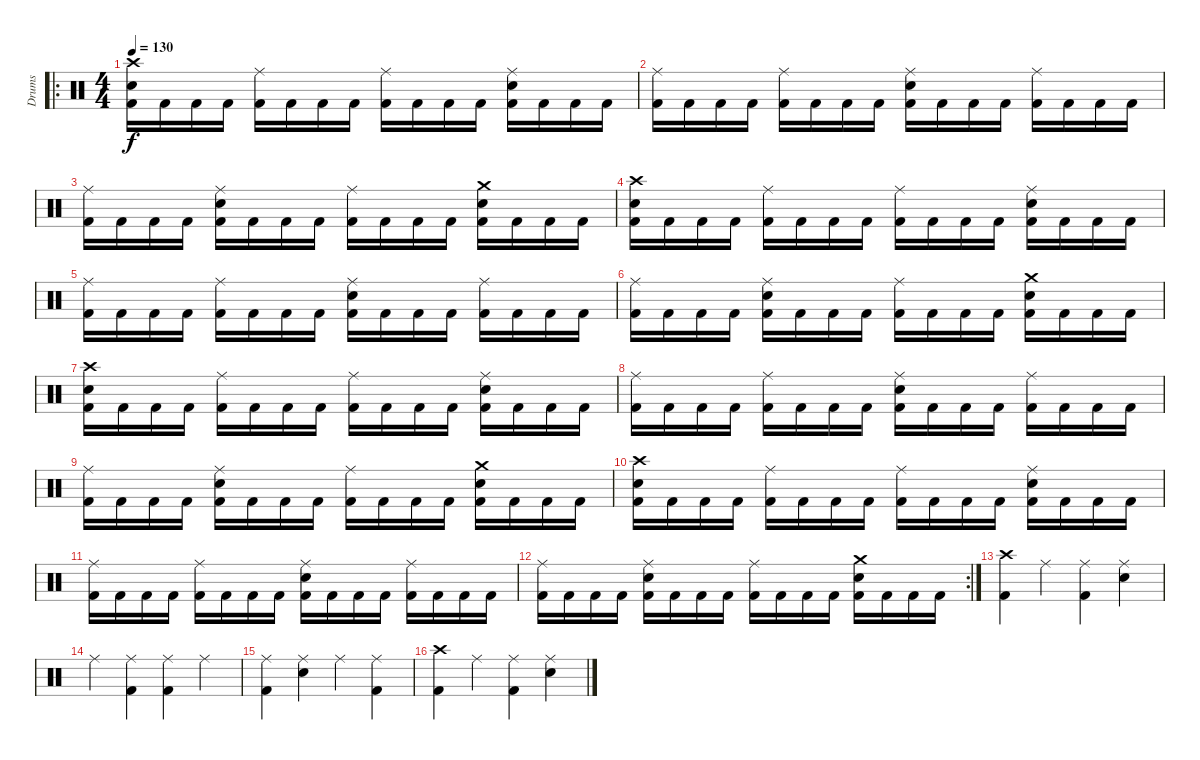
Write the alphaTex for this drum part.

\track ("Drums" "Drums") {instrument percussion}
\staff {score}
\articulation defaults
\ro
\ts (4 4)
\tempo 130
\clef neutral
\ks c
("Crash high (hit)" "Electric Snare (hit)" "Kick (hit) 2").16{dy f} "Kick (hit) 2".16 "Kick (hit) 2".16 "Kick (hit) 2".16 ("Ride (middle)" "Kick (hit) 2").16 "Kick (hit) 2".16 "Kick (hit) 2".16 "Kick (hit) 2".16 ("Ride (middle)" "Kick (hit) 2").16 "Kick (hit) 2".16 "Kick (hit) 2".16 "Kick (hit) 2".16 ("Ride (middle)" "Electric Snare (hit)" "Kick (hit) 2").16 "Kick (hit) 2".16 "Kick (hit) 2".16 "Kick (hit) 2".16 |
("Ride (middle)" "Kick (hit) 2").16 "Kick (hit) 2".16 "Kick (hit) 2".16 "Kick (hit) 2".16 ("Ride (middle)" "Kick (hit) 2").16 "Kick (hit) 2".16 "Kick (hit) 2".16 "Kick (hit) 2".16 ("Ride (middle)" "Electric Snare (hit)" "Kick (hit) 2").16 "Kick (hit) 2".16 "Kick (hit) 2".16 "Kick (hit) 2".16 ("Ride (middle)" "Kick (hit) 2").16 "Kick (hit) 2".16 "Kick (hit) 2".16 "Kick (hit) 2".16 |
("Ride (middle)" "Kick (hit) 2").16 "Kick (hit) 2".16 "Kick (hit) 2".16 "Kick (hit) 2".16 ("Ride (middle)" "Electric Snare (hit)" "Kick (hit) 2").16 "Kick (hit) 2".16 "Kick (hit) 2".16 "Kick (hit) 2".16 ("Ride (middle)" "Kick (hit) 2").16 "Kick (hit) 2".16 "Kick (hit) 2".16 "Kick (hit) 2".16 ("Crash medium (hit)" "Electric Snare (hit)" "Kick (hit) 2").16 "Kick (hit) 2".16 "Kick (hit) 2".16 "Kick (hit) 2".16 |
("Crash high (hit)" "Electric Snare (hit)" "Kick (hit) 2").16 "Kick (hit) 2".16 "Kick (hit) 2".16 "Kick (hit) 2".16 ("Ride (middle)" "Kick (hit) 2").16 "Kick (hit) 2".16 "Kick (hit) 2".16 "Kick (hit) 2".16 ("Ride (middle)" "Kick (hit) 2").16 "Kick (hit) 2".16 "Kick (hit) 2".16 "Kick (hit) 2".16 ("Ride (middle)" "Electric Snare (hit)" "Kick (hit) 2").16 "Kick (hit) 2".16 "Kick (hit) 2".16 "Kick (hit) 2".16 |
("Ride (middle)" "Kick (hit) 2").16 "Kick (hit) 2".16 "Kick (hit) 2".16 "Kick (hit) 2".16 ("Ride (middle)" "Kick (hit) 2").16 "Kick (hit) 2".16 "Kick (hit) 2".16 "Kick (hit) 2".16 ("Ride (middle)" "Electric Snare (hit)" "Kick (hit) 2").16 "Kick (hit) 2".16 "Kick (hit) 2".16 "Kick (hit) 2".16 ("Ride (middle)" "Kick (hit) 2").16 "Kick (hit) 2".16 "Kick (hit) 2".16 "Kick (hit) 2".16 |
("Ride (middle)" "Kick (hit) 2").16 "Kick (hit) 2".16 "Kick (hit) 2".16 "Kick (hit) 2".16 ("Ride (middle)" "Electric Snare (hit)" "Kick (hit) 2").16 "Kick (hit) 2".16 "Kick (hit) 2".16 "Kick (hit) 2".16 ("Ride (middle)" "Kick (hit) 2").16 "Kick (hit) 2".16 "Kick (hit) 2".16 "Kick (hit) 2".16 ("Crash medium (hit)" "Electric Snare (hit)" "Kick (hit) 2").16 "Kick (hit) 2".16 "Kick (hit) 2".16 "Kick (hit) 2".16 |
("Crash high (hit)" "Electric Snare (hit)" "Kick (hit) 2").16 "Kick (hit) 2".16 "Kick (hit) 2".16 "Kick (hit) 2".16 ("Ride (middle)" "Kick (hit) 2").16 "Kick (hit) 2".16 "Kick (hit) 2".16 "Kick (hit) 2".16 ("Ride (middle)" "Kick (hit) 2").16 "Kick (hit) 2".16 "Kick (hit) 2".16 "Kick (hit) 2".16 ("Ride (middle)" "Electric Snare (hit)" "Kick (hit) 2").16 "Kick (hit) 2".16 "Kick (hit) 2".16 "Kick (hit) 2".16 |
("Ride (middle)" "Kick (hit) 2").16 "Kick (hit) 2".16 "Kick (hit) 2".16 "Kick (hit) 2".16 ("Ride (middle)" "Kick (hit) 2").16 "Kick (hit) 2".16 "Kick (hit) 2".16 "Kick (hit) 2".16 ("Ride (middle)" "Electric Snare (hit)" "Kick (hit) 2").16 "Kick (hit) 2".16 "Kick (hit) 2".16 "Kick (hit) 2".16 ("Ride (middle)" "Kick (hit) 2").16 "Kick (hit) 2".16 "Kick (hit) 2".16 "Kick (hit) 2".16 |
("Ride (middle)" "Kick (hit) 2").16 "Kick (hit) 2".16 "Kick (hit) 2".16 "Kick (hit) 2".16 ("Ride (middle)" "Electric Snare (hit)" "Kick (hit) 2").16 "Kick (hit) 2".16 "Kick (hit) 2".16 "Kick (hit) 2".16 ("Ride (middle)" "Kick (hit) 2").16 "Kick (hit) 2".16 "Kick (hit) 2".16 "Kick (hit) 2".16 ("Crash medium (hit)" "Electric Snare (hit)" "Kick (hit) 2").16 "Kick (hit) 2".16 "Kick (hit) 2".16 "Kick (hit) 2".16 |
("Crash high (hit)" "Electric Snare (hit)" "Kick (hit) 2").16 "Kick (hit) 2".16 "Kick (hit) 2".16 "Kick (hit) 2".16 ("Ride (middle)" "Kick (hit) 2").16 "Kick (hit) 2".16 "Kick (hit) 2".16 "Kick (hit) 2".16 ("Ride (middle)" "Kick (hit) 2").16 "Kick (hit) 2".16 "Kick (hit) 2".16 "Kick (hit) 2".16 ("Ride (middle)" "Electric Snare (hit)" "Kick (hit) 2").16 "Kick (hit) 2".16 "Kick (hit) 2".16 "Kick (hit) 2".16 |
("Ride (middle)" "Kick (hit) 2").16 "Kick (hit) 2".16 "Kick (hit) 2".16 "Kick (hit) 2".16 ("Ride (middle)" "Kick (hit) 2").16 "Kick (hit) 2".16 "Kick (hit) 2".16 "Kick (hit) 2".16 ("Ride (middle)" "Electric Snare (hit)" "Kick (hit) 2").16 "Kick (hit) 2".16 "Kick (hit) 2".16 "Kick (hit) 2".16 ("Ride (middle)" "Kick (hit) 2").16 "Kick (hit) 2".16 "Kick (hit) 2".16 "Kick (hit) 2".16 |
\rc 2
("Ride (middle)" "Kick (hit) 2").16 "Kick (hit) 2".16 "Kick (hit) 2".16 "Kick (hit) 2".16 ("Ride (middle)" "Electric Snare (hit)" "Kick (hit) 2").16 "Kick (hit) 2".16 "Kick (hit) 2".16 "Kick (hit) 2".16 ("Ride (middle)" "Kick (hit) 2").16 "Kick (hit) 2".16 "Kick (hit) 2".16 "Kick (hit) 2".16 ("Crash medium (hit)" "Electric Snare (hit)" "Kick (hit) 2").16 "Kick (hit) 2".16 "Kick (hit) 2".16 "Kick (hit) 2".16 |
("Crash high (hit)" "Kick (hit) 2").4{volume 5} "Ride (middle)".4 ("Ride (middle)" "Kick (hit) 2").4 ("Ride (middle)" "Electric Snare (hit)").4 |
"Ride (middle)".4 ("Ride (middle)" "Kick (hit) 2").4 ("Ride (middle)" "Kick (hit) 2").4 "Ride (middle)".4 |
("Ride (middle)" "Kick (hit) 2").4 ("Ride (middle)" "Electric Snare (hit)").4 "Ride (middle)".4 ("Ride (middle)" "Kick (hit) 2").4 |
("Crash high (hit)" "Kick (hit) 2").4 "Ride (middle)".4 ("Ride (middle)" "Kick (hit) 2").4 ("Ride (middle)" "Electric Snare (hit)").4
